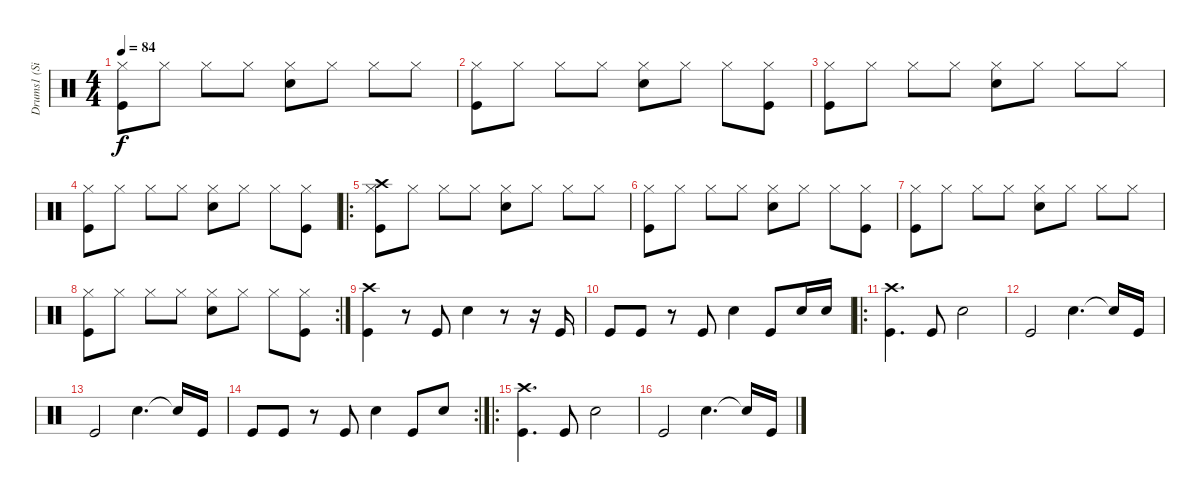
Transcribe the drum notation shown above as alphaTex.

\track ("Drums1 (Silas)" "Drums1 (Si") {instrument percussion}
\staff {score}
\articulation defaults
\ts (4 4)
\tempo 84
\clef neutral
\ks c
("Hi-Hat (closed)" "Kick (hit)").8{dy f} "Hi-Hat (closed)".8 "Hi-Hat (closed)".8 "Hi-Hat (closed)".8 ("Hi-Hat (closed)" "Snare (hit) 2").8 "Hi-Hat (closed)".8 "Hi-Hat (closed)".8 "Hi-Hat (closed)".8 |
("Hi-Hat (closed)" "Kick (hit)").8 "Hi-Hat (closed)".8 "Hi-Hat (closed)".8 "Hi-Hat (closed)".8 ("Hi-Hat (closed)" "Snare (hit) 2").8 "Hi-Hat (closed)".8 "Hi-Hat (closed)".8 ("Hi-Hat (closed)" "Kick (hit)").8 |
("Hi-Hat (closed)" "Kick (hit)").8 "Hi-Hat (closed)".8 "Hi-Hat (closed)".8 "Hi-Hat (closed)".8 ("Hi-Hat (closed)" "Snare (hit) 2").8 "Hi-Hat (closed)".8 "Hi-Hat (closed)".8 "Hi-Hat (closed)".8 |
("Hi-Hat (closed)" "Kick (hit)").8 "Hi-Hat (closed)".8 "Hi-Hat (closed)".8 "Hi-Hat (closed)".8 ("Hi-Hat (closed)" "Snare (hit) 2").8 "Hi-Hat (closed)".8 "Hi-Hat (closed)".8 ("Hi-Hat (closed)" "Kick (hit)").8 |
\ro
("Hi-Hat (closed)" "Kick (hit)" "Crash high (hit)").8 "Hi-Hat (closed)".8 "Hi-Hat (closed)".8 "Hi-Hat (closed)".8 ("Hi-Hat (closed)" "Snare (hit) 2").8 "Hi-Hat (closed)".8 "Hi-Hat (closed)".8 "Hi-Hat (closed)".8 |
("Hi-Hat (closed)" "Kick (hit)").8 "Hi-Hat (closed)".8 "Hi-Hat (closed)".8 "Hi-Hat (closed)".8 ("Hi-Hat (closed)" "Snare (hit) 2").8 "Hi-Hat (closed)".8 "Hi-Hat (closed)".8 ("Hi-Hat (closed)" "Kick (hit)").8 |
("Hi-Hat (closed)" "Kick (hit)").8 "Hi-Hat (closed)".8 "Hi-Hat (closed)".8 "Hi-Hat (closed)".8 ("Hi-Hat (closed)" "Snare (hit) 2").8 "Hi-Hat (closed)".8 "Hi-Hat (closed)".8 "Hi-Hat (closed)".8 |
\rc 2
("Hi-Hat (closed)" "Kick (hit)").8 "Hi-Hat (closed)".8 "Hi-Hat (closed)".8 "Hi-Hat (closed)".8 ("Hi-Hat (closed)" "Snare (hit) 2").8 "Hi-Hat (closed)".8 "Hi-Hat (closed)".8 ("Hi-Hat (closed)" "Kick (hit)").8 |
("Kick (hit)" "Crash high (hit)").4 r.8 "Kick (hit)".8 "Snare (hit) 2".4 r.8 r.16 "Kick (hit)".16 |
"Kick (hit)".8 "Kick (hit)".8 r.8 "Kick (hit)".8 "Snare (hit) 2".4 "Kick (hit)".8 "Snare (hit) 2".16 "Snare (hit) 2".16 |
\ro
("Kick (hit)" "Crash high (hit)").4{d} "Kick (hit)".8 "Snare (hit) 2".2 |
"Kick (hit)".2 "Snare (hit) 2".4{d} "Snare (hit) 2"{t}.16 "Kick (hit)".16 |
"Kick (hit)".2 "Snare (hit) 2".4{d} "Snare (hit) 2"{t}.16 "Kick (hit)".16 |
\rc 2 "Kick (hit)".8 "Kick (hit)".8
r.8 "Kick (hit)".8 "Snare (hit) 2".4 "Kick (hit)".8 "Snare (hit) 2".8 |
\ro
("Kick (hit)" "Crash high (hit)").4{d} "Kick (hit)".8 "Snare (hit) 2".2 |
"Kick (hit)".2 "Snare (hit) 2".4{d} "Snare (hit) 2"{t}.16 "Kick (hit)".16
